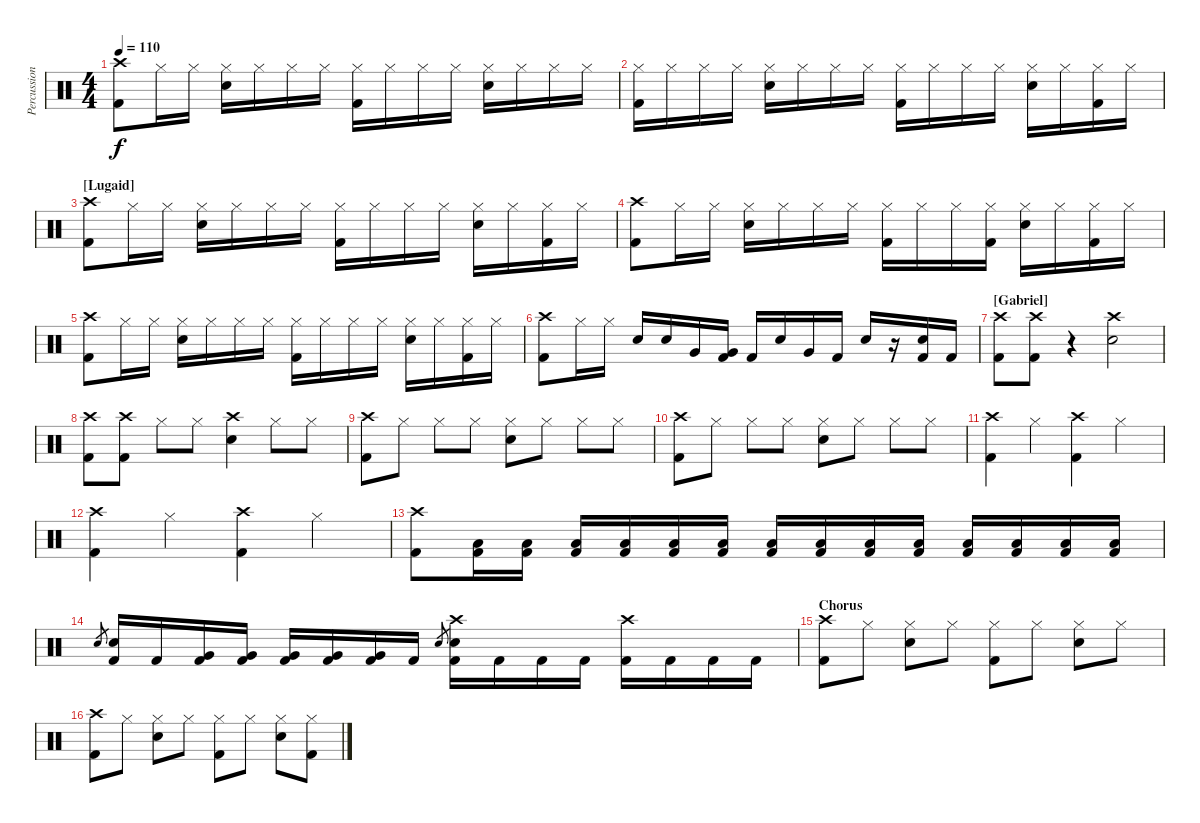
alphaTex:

\track ("Percussions" "Percussion") {instrument percussion}
\staff {score}
\articulation defaults
\ts (4 4)
\tempo 110
\clef neutral
\ks c
("Crash high (hit)" "Kick (hit) 2").8{dy f} "Hi-Hat (closed)".16 "Hi-Hat (closed)".16 ("Hi-Hat (closed)" "Electric Snare (hit)").16 "Hi-Hat (closed)".16 "Hi-Hat (closed)".16 "Hi-Hat (closed)".16 ("Hi-Hat (closed)" "Kick (hit) 2").16 "Hi-Hat (closed)".16 "Hi-Hat (closed)".16 "Hi-Hat (closed)".16 ("Hi-Hat (closed)" "Electric Snare (hit)").16 "Hi-Hat (closed)".16 "Hi-Hat (closed)".16 "Hi-Hat (closed)".16 |
("Hi-Hat (closed)" "Kick (hit) 2").16 "Hi-Hat (closed)".16 "Hi-Hat (closed)".16 "Hi-Hat (closed)".16 ("Hi-Hat (closed)" "Electric Snare (hit)").16 "Hi-Hat (closed)".16 "Hi-Hat (closed)".16 "Hi-Hat (closed)".16 ("Hi-Hat (closed)" "Kick (hit) 2").16 "Hi-Hat (closed)".16 "Hi-Hat (closed)".16 "Hi-Hat (closed)".16 ("Hi-Hat (closed)" "Electric Snare (hit)").16 "Hi-Hat (closed)".16 ("Hi-Hat (closed)" "Kick (hit) 2").16 "Hi-Hat (closed)".16 |
\section ("" "[Lugaid]")
("Crash high (hit)" "Kick (hit) 2").8 "Hi-Hat (closed)".16 "Hi-Hat (closed)".16 ("Hi-Hat (closed)" "Electric Snare (hit)").16 "Hi-Hat (closed)".16 "Hi-Hat (closed)".16 "Hi-Hat (closed)".16 ("Hi-Hat (closed)" "Kick (hit) 2").16 "Hi-Hat (closed)".16 "Hi-Hat (closed)".16 "Hi-Hat (closed)".16 ("Hi-Hat (closed)" "Electric Snare (hit)").16 "Hi-Hat (closed)".16 ("Hi-Hat (closed)" "Kick (hit) 2").16 "Hi-Hat (closed)".16 |
("Crash high (hit)" "Kick (hit) 2").8 "Hi-Hat (closed)".16 "Hi-Hat (closed)".16 ("Hi-Hat (closed)" "Electric Snare (hit)").16 "Hi-Hat (closed)".16 "Hi-Hat (closed)".16 "Hi-Hat (closed)".16 ("Hi-Hat (closed)" "Kick (hit) 2").16 "Hi-Hat (closed)".16 "Hi-Hat (closed)".16 ("Hi-Hat (closed)" "Kick (hit) 2").16 ("Hi-Hat (closed)" "Electric Snare (hit)").16 "Hi-Hat (closed)".16 ("Hi-Hat (closed)" "Kick (hit) 2").16 "Hi-Hat (closed)".16 |
("Crash high (hit)" "Kick (hit) 2").8 "Hi-Hat (closed)".16 "Hi-Hat (closed)".16 ("Hi-Hat (closed)" "Electric Snare (hit)").16 "Hi-Hat (closed)".16 "Hi-Hat (closed)".16 "Hi-Hat (closed)".16 ("Hi-Hat (closed)" "Kick (hit) 2").16 "Hi-Hat (closed)".16 "Hi-Hat (closed)".16 "Hi-Hat (closed)".16 ("Hi-Hat (closed)" "Electric Snare (hit)").16 "Hi-Hat (closed)".16 ("Hi-Hat (closed)" "Kick (hit) 2").16 "Hi-Hat (closed)".16 |
("Crash high (hit)" "Kick (hit) 2").8 "Hi-Hat (closed)".16 "Hi-Hat (closed)".16 "Electric Snare (hit)".16 "Electric Snare (hit)".16 "Very Low Tom (hit)".16 ("Very Low Tom (hit)" "Kick (hit) 2").16 "Kick (hit) 2".16 "Electric Snare (hit)".16 "Very Low Tom (hit)".16 "Kick (hit) 2".16 "Electric Snare (hit)".16 r.16 ("Electric Snare (hit)" "Kick (hit) 2").16 "Kick (hit) 2".16 |
\section ("" "[Gabriel]")
("Crash high (hit)" "Kick (hit) 2").8 ("Crash high (hit)" "Kick (hit) 2").8 r.4 ("Crash high (hit)" "Electric Snare (hit)").2 |
("Crash high (hit)" "Kick (hit) 2").8 ("Crash high (hit)" "Kick (hit) 2").8 "Hi-Hat (closed)".8 "Hi-Hat (closed)".8 ("Crash high (hit)" "Electric Snare (hit)").4 "Hi-Hat (closed)".8 "Hi-Hat (closed)".8 |
("Crash high (hit)" "Kick (hit) 2").8 "Hi-Hat (closed)".8 "Hi-Hat (closed)".8 "Hi-Hat (closed)".8 ("Hi-Hat (closed)" "Electric Snare (hit)").8 "Hi-Hat (closed)".8 "Hi-Hat (closed)".8 "Hi-Hat (closed)".8 |
("Crash high (hit)" "Kick (hit) 2").8 "Hi-Hat (closed)".8 "Hi-Hat (closed)".8 "Hi-Hat (closed)".8 ("Hi-Hat (closed)" "Electric Snare (hit)").8 "Hi-Hat (closed)".8 "Hi-Hat (closed)".8 "Hi-Hat (closed)".8 |
("Crash high (hit)" "Kick (hit) 2").4 "Hi-Hat (closed)".4 ("Crash high (hit)" "Kick (hit) 2").4 "Hi-Hat (closed)".4 |
("Crash high (hit)" "Kick (hit) 2").4 "Hi-Hat (closed)".4 ("Crash high (hit)" "Kick (hit) 2").4 "Hi-Hat (closed)".4 |
("Crash high (hit)" "Kick (hit) 2").8 ("Low Tom (hit)" "Kick (hit) 2").16 ("Low Tom (hit)" "Kick (hit) 2").16 ("Low Tom (hit)" "Kick (hit) 2").16 ("Low Tom (hit)" "Kick (hit) 2").16 ("Low Tom (hit)" "Kick (hit) 2").16 ("Low Tom (hit)" "Kick (hit) 2").16 ("Low Tom (hit)" "Kick (hit) 2").16 ("Low Tom (hit)" "Kick (hit) 2").16 ("Low Tom (hit)" "Kick (hit) 2").16 ("Low Tom (hit)" "Kick (hit) 2").16 ("Low Tom (hit)" "Kick (hit) 2").16 ("Low Tom (hit)" "Kick (hit) 2").16 ("Low Tom (hit)" "Kick (hit) 2").16 ("Low Tom (hit)" "Kick (hit) 2").16 |
"Electric Snare (hit)".8{gr} ("Electric Snare (hit)" "Kick (hit) 2").16 "Kick (hit) 2".16 ("Very Low Tom (hit)" "Kick (hit) 2").16 ("Very Low Tom (hit)" "Kick (hit) 2").16 ("Very Low Tom (hit)" "Kick (hit) 2").16 ("Very Low Tom (hit)" "Kick (hit) 2").16 ("Very Low Tom (hit)" "Kick (hit) 2").16 "Kick (hit) 2".16 "Electric Snare (hit)".8{gr} ("Crash high (hit)" "Electric Snare (hit)" "Kick (hit) 2").16 "Kick (hit) 2".16 "Kick (hit) 2".16 "Kick (hit) 2".16 ("Crash high (hit)" "Kick (hit) 2").16 "Kick (hit) 2".16 "Kick (hit) 2".16 "Kick (hit) 2".16 |
\section ("" "Chorus")
("Crash high (hit)" "Kick (hit) 2").8 "Hi-Hat (closed)".8 ("Hi-Hat (closed)" "Electric Snare (hit)").8 "Hi-Hat (closed)".8 ("Hi-Hat (closed)" "Kick (hit) 2").8 "Hi-Hat (closed)".8 ("Hi-Hat (closed)" "Electric Snare (hit)").8 "Hi-Hat (closed)".8 |
("Crash high (hit)" "Kick (hit) 2").8 "Hi-Hat (closed)".8 ("Hi-Hat (closed)" "Electric Snare (hit)").8 "Hi-Hat (closed)".8 ("Hi-Hat (closed)" "Kick (hit) 2").8 "Hi-Hat (closed)".8 ("Hi-Hat (closed)" "Electric Snare (hit)").8 ("Hi-Hat (closed)" "Kick (hit) 2").8
